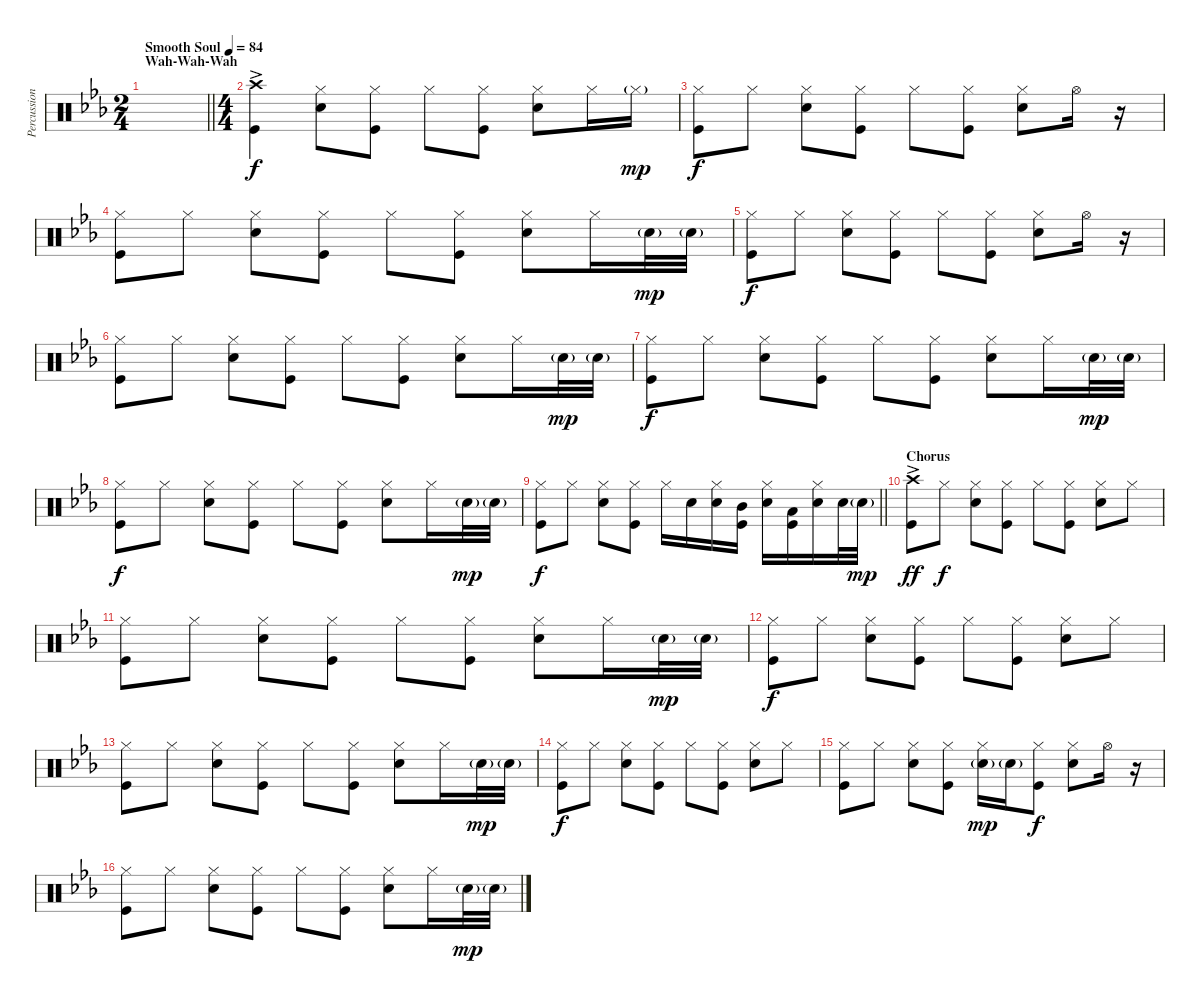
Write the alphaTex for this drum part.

\track ("Percussion" "Percussion") {instrument percussion}
\staff {score}
\articulation defaults
\ts (2 4)
\section ("" "Wah-Wah-Wah")
\tempo (84 "Smooth Soul")
\clef neutral
\barLineRight lightlight
\ks eb
|
\ts (4 4)
\section ("" "")
("Crash high (hit)" "Kick (hit)"{ac}).4 ("Hi-Hat (closed)" "Snare (hit) 2").8{dy f} ("Hi-Hat (closed)" "Kick (hit)").8 "Hi-Hat (closed)".8 ("Hi-Hat (closed)" "Kick (hit)").8 ("Hi-Hat (closed)" "Snare (hit) 2").8 "Hi-Hat (closed)".16 "Hi-Hat (closed)"{g}.16{dy mp} |
("Hi-Hat (closed)" "Kick (hit)").8{dy f} "Hi-Hat (closed)".8 ("Hi-Hat (closed)" "Snare (hit) 2").8 ("Hi-Hat (closed)" "Kick (hit)").8 "Hi-Hat (closed)".8 ("Hi-Hat (closed)" "Kick (hit)").8 ("Hi-Hat (closed)" "Snare (hit) 2").8 "Hi-Hat (open)".16 r.16 |
("Hi-Hat (closed)" "Kick (hit)").8 "Hi-Hat (closed)".8 ("Hi-Hat (closed)" "Snare (hit) 2").8 ("Hi-Hat (closed)" "Kick (hit)").8 "Hi-Hat (closed)".8 ("Hi-Hat (closed)" "Kick (hit)").8 ("Hi-Hat (closed)" "Snare (hit) 2").8 "Hi-Hat (closed)".16 "Snare (hit) 2"{g}.32{dy mp} "Snare (hit) 2"{g}.32 |
("Hi-Hat (closed)" "Kick (hit)").8{dy f} "Hi-Hat (closed)".8 ("Hi-Hat (closed)" "Snare (hit) 2").8 ("Hi-Hat (closed)" "Kick (hit)").8 "Hi-Hat (closed)".8 ("Hi-Hat (closed)" "Kick (hit)").8 ("Hi-Hat (closed)" "Snare (hit) 2").8 "Hi-Hat (open)".16 r.16 |
("Hi-Hat (closed)" "Kick (hit)").8 "Hi-Hat (closed)".8 ("Hi-Hat (closed)" "Snare (hit) 2").8 ("Hi-Hat (closed)" "Kick (hit)").8 "Hi-Hat (closed)".8 ("Hi-Hat (closed)" "Kick (hit)").8 ("Hi-Hat (closed)" "Snare (hit) 2").8 "Hi-Hat (closed)".16 "Snare (hit) 2"{g}.32{dy mp} "Snare (hit) 2"{g}.32 |
("Hi-Hat (closed)" "Kick (hit)").8{dy f} "Hi-Hat (closed)".8 ("Hi-Hat (closed)" "Snare (hit) 2").8 ("Hi-Hat (closed)" "Kick (hit)").8 "Hi-Hat (closed)".8 ("Hi-Hat (closed)" "Kick (hit)").8 ("Hi-Hat (closed)" "Snare (hit) 2").8 "Hi-Hat (closed)".16 "Snare (hit) 2"{g}.32{dy mp} "Snare (hit) 2"{g}.32 |
("Hi-Hat (closed)" "Kick (hit)").8{dy f} "Hi-Hat (closed)".8 ("Hi-Hat (closed)" "Snare (hit) 2").8 ("Hi-Hat (closed)" "Kick (hit)").8 "Hi-Hat (closed)".8 ("Hi-Hat (closed)" "Kick (hit)").8 ("Hi-Hat (closed)" "Snare (hit) 2").8 "Hi-Hat (closed)".16 "Snare (hit) 2"{g}.32{dy mp} "Snare (hit) 2"{g}.32 |
\barLineRight lightlight
("Hi-Hat (closed)" "Kick (hit)").8{dy f} "Hi-Hat (closed)".8 ("Hi-Hat (closed)" "Snare (hit) 2").8 ("Hi-Hat (closed)" "Kick (hit)").8 "Hi-Hat (closed)".16 "Snare (hit) 2".16 ("Hi-Hat (closed)" "Snare (hit) 2").16 ("Mid Tom (hit)" "Kick (hit)").16 ("Hi-Hat (closed)" "Snare (hit) 2").16 ("Low Tom (hit)" "Kick (hit)").16 ("Hi-Hat (closed)" "Snare (hit) 2").16 "Snare (hit) 2".32 "Snare (hit) 2"{g}.32{dy mp} |
\section ("" "Chorus")
("Crash high (hit)" "Kick (hit)"{ac}).8{dy ff} "Hi-Hat (closed)".8{dy f} ("Hi-Hat (closed)" "Snare (hit) 2").8 ("Hi-Hat (closed)" "Kick (hit)").8 "Hi-Hat (closed)".8 ("Hi-Hat (closed)" "Kick (hit)").8 ("Hi-Hat (closed)" "Snare (hit) 2").8 "Hi-Hat (closed)".8 |
("Hi-Hat (closed)" "Kick (hit)").8 "Hi-Hat (closed)".8 ("Hi-Hat (closed)" "Snare (hit) 2").8 ("Hi-Hat (closed)" "Kick (hit)").8 "Hi-Hat (closed)".8 ("Hi-Hat (closed)" "Kick (hit)").8 ("Hi-Hat (closed)" "Snare (hit) 2").8 "Hi-Hat (closed)".16 "Snare (hit) 2"{g}.32{dy mp} "Snare (hit) 2"{g}.32 |
("Hi-Hat (closed)" "Kick (hit)").8{dy f} "Hi-Hat (closed)".8 ("Hi-Hat (closed)" "Snare (hit) 2").8 ("Hi-Hat (closed)" "Kick (hit)").8 "Hi-Hat (closed)".8 ("Hi-Hat (closed)" "Kick (hit)").8 ("Hi-Hat (closed)" "Snare (hit) 2").8 "Hi-Hat (closed)".8 |
("Hi-Hat (closed)" "Kick (hit)").8 "Hi-Hat (closed)".8 ("Hi-Hat (closed)" "Snare (hit) 2").8 ("Hi-Hat (closed)" "Kick (hit)").8 "Hi-Hat (closed)".8 ("Hi-Hat (closed)" "Kick (hit)").8 ("Hi-Hat (closed)" "Snare (hit) 2").8 "Hi-Hat (closed)".16 "Snare (hit) 2"{g}.32{dy mp} "Snare (hit) 2"{g}.32 |
("Hi-Hat (closed)" "Kick (hit)").8{dy f} "Hi-Hat (closed)".8 ("Hi-Hat (closed)" "Snare (hit) 2").8 ("Hi-Hat (closed)" "Kick (hit)").8 "Hi-Hat (closed)".8 ("Hi-Hat (closed)" "Kick (hit)").8 ("Hi-Hat (closed)" "Snare (hit) 2").8 "Hi-Hat (closed)".8 |
("Hi-Hat (closed)" "Kick (hit)").8 "Hi-Hat (closed)".8 ("Hi-Hat (closed)" "Snare (hit) 2").8 ("Hi-Hat (closed)" "Kick (hit)").8 ("Hi-Hat (closed)" "Snare (hit) 2"{g}).16{dy mp} "Snare (hit) 2"{g}.16 ("Hi-Hat (closed)" "Kick (hit)").8{dy f} ("Hi-Hat (closed)" "Snare (hit) 2").8 "Hi-Hat (open)".16 r.16 |
("Hi-Hat (closed)" "Kick (hit)").8 "Hi-Hat (closed)".8 ("Hi-Hat (closed)" "Snare (hit) 2").8 ("Hi-Hat (closed)" "Kick (hit)").8 "Hi-Hat (closed)".8 ("Hi-Hat (closed)" "Kick (hit)").8 ("Hi-Hat (closed)" "Snare (hit) 2").8 "Hi-Hat (closed)".16 "Snare (hit) 2"{g}.32{dy mp} "Snare (hit) 2"{g}.32
